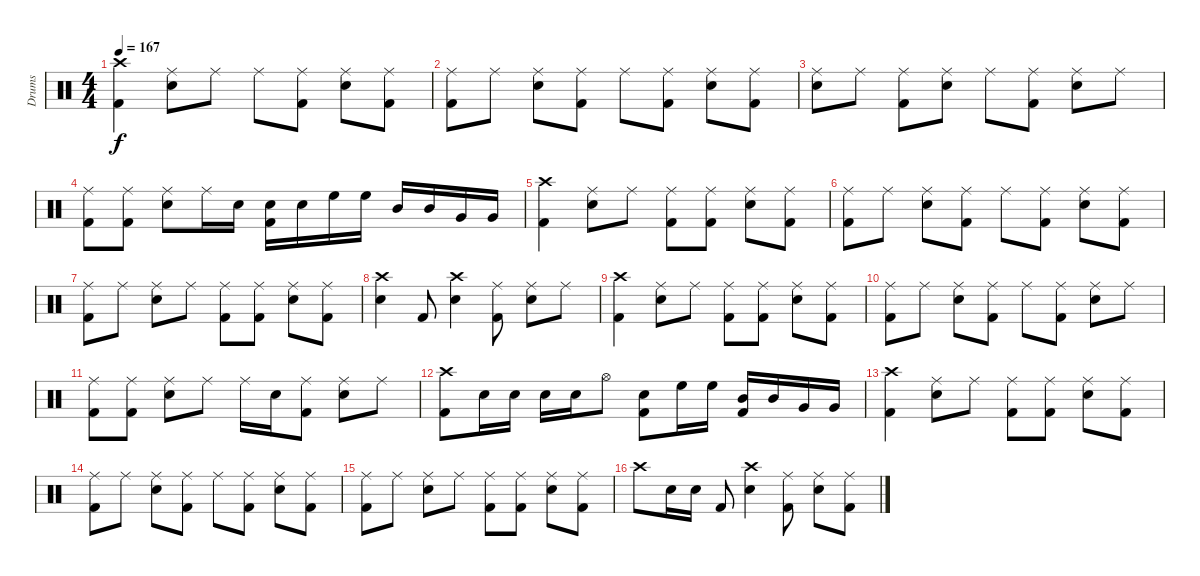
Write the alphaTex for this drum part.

\track ("Drums" "Drums") {instrument percussion}
\staff {score}
\articulation defaults
\ts (4 4)
\tempo 167
\clef neutral
\ks c
("Kick (hit) 2" "Crash high (hit)").4{dy f} ("Ride (middle)" "Snare (hit) 2").8 "Ride (middle)".8 "Ride (middle)".8 ("Ride (middle)" "Kick (hit) 2").8 ("Ride (middle)" "Snare (hit) 2").8 ("Ride (middle)" "Kick (hit) 2").8 |
("Kick (hit) 2" "Ride (middle)").8 "Ride (middle)".8 ("Snare (hit) 2" "Ride (middle)").8 ("Kick (hit) 2" "Ride (middle)").8 "Ride (middle)".8 ("Kick (hit) 2" "Ride (middle)").8 ("Snare (hit) 2" "Ride (middle)").8 ("Kick (hit) 2" "Ride (middle)").8 |
("Ride (middle)" "Snare (hit) 2").8 "Ride (middle)".8 ("Kick (hit) 2" "Ride (middle)").8 ("Snare (hit) 2" "Ride (middle)").8 "Ride (middle)".8 ("Kick (hit) 2" "Ride (middle)").8 ("Snare (hit) 2" "Ride (middle)").8 "Ride (middle)".8 |
("Kick (hit) 2" "Ride (middle)").8 ("Kick (hit) 2" "Ride (middle)").8 ("Snare (hit) 2" "Ride (middle)").8 "Ride (middle)".16 "Snare (hit) 2".16 ("Kick (hit) 2" "Snare (hit) 2").16 "Snare (hit) 2".16 "High Floor Tom (hit)".16 "High Floor Tom (hit)".16 "Mid Tom (hit)".16 "Mid Tom (hit)".16 "Very Low Tom (hit)".16 "Very Low Tom (hit)".16 |
("Kick (hit) 2" "Crash high (hit)").4 ("Ride (middle)" "Snare (hit) 2").8 "Ride (middle)".8 ("Ride (middle)" "Kick (hit) 2").8 ("Ride (middle)" "Kick (hit) 2").8 ("Ride (middle)" "Snare (hit) 2").8 ("Kick (hit) 2" "Ride (middle)").8 |
("Kick (hit) 2" "Ride (middle)").8 "Ride (middle)".8 ("Snare (hit) 2" "Ride (middle)").8 ("Kick (hit) 2" "Ride (middle)").8 "Ride (middle)".8 ("Kick (hit) 2" "Ride (middle)").8 ("Snare (hit) 2" "Ride (middle)").8 ("Kick (hit) 2" "Ride (middle)").8 |
("Kick (hit) 2" "Ride (middle)").8 "Ride (middle)".8 ("Snare (hit) 2" "Ride (middle)").8 "Ride (middle)".8 ("Kick (hit) 2" "Ride (middle)").8 ("Kick (hit) 2" "Ride (middle)").8 ("Snare (hit) 2" "Ride (middle)").8 ("Kick (hit) 2" "Ride (middle)").8 |
("Crash high (hit)" "Snare (hit) 2").4 "Kick (hit) 2".8 ("Crash high (hit)" "Snare (hit) 2").4 ("Kick (hit) 2" "Ride (middle)").8 ("Snare (hit) 2" "Ride (middle)").8 "Ride (middle)".8 |
("Kick (hit) 2" "Crash high (hit)").4 ("Ride (middle)" "Snare (hit) 2").8 "Ride (middle)".8 ("Kick (hit) 2" "Ride (middle)").8 ("Ride (middle)" "Kick (hit) 2").8 ("Ride (middle)" "Snare (hit) 2").8 ("Ride (middle)" "Kick (hit) 2").8 |
("Kick (hit) 2" "Ride (middle)").8 "Ride (middle)".8 ("Snare (hit) 2" "Ride (middle)").8 ("Kick (hit) 2" "Ride (middle)").8 "Ride (middle)".8 ("Kick (hit) 2" "Ride (middle)").8 ("Snare (hit) 2" "Ride (middle)").8 "Ride (middle)".8 |
("Kick (hit) 2" "Ride (middle)").8 ("Kick (hit) 2" "Ride (middle)").8 ("Snare (hit) 2" "Ride (middle)").8 "Ride (middle)".8 "Ride (middle)".16 "Snare (hit) 2".16 ("Ride (middle)" "Kick (hit) 2").8 ("Snare (hit) 2" "Ride (middle)").8 "Ride (middle)".8 |
("Crash high (hit)" "Kick (hit) 2").8 "Snare (hit) 2".16 "Snare (hit) 2".16 "Snare (hit) 2".16 "Snare (hit) 2".16 "Hi-Hat (open)".8 ("Snare (hit) 2" "Kick (hit) 2").8 "High Floor Tom (hit)".16 "High Floor Tom (hit)".16 ("Kick (hit) 2" "Mid Tom (hit)").16 "Mid Tom (hit)".16 "Very Low Tom (hit)".16 "Very Low Tom (hit)".16 |
("Kick (hit) 2" "Crash high (hit)").4 ("Ride (middle)" "Snare (hit) 2").8 "Ride (middle)".8 ("Ride (middle)" "Kick (hit) 2").8 ("Ride (middle)" "Kick (hit) 2").8 ("Ride (middle)" "Snare (hit) 2").8 ("Ride (middle)" "Kick (hit) 2").8 |
("Kick (hit) 2" "Ride (middle)").8 "Ride (middle)".8 ("Snare (hit) 2" "Ride (middle)").8 ("Kick (hit) 2" "Ride (middle)").8 "Ride (middle)".8 ("Kick (hit) 2" "Ride (middle)").8 ("Snare (hit) 2" "Ride (middle)").8 ("Kick (hit) 2" "Ride (middle)").8 |
("Kick (hit) 2" "Ride (middle)").8 "Ride (middle)".8 ("Snare (hit) 2" "Ride (middle)").8 "Ride (middle)".8 ("Ride (middle)" "Kick (hit) 2").8 ("Kick (hit) 2" "Ride (middle)").8 ("Snare (hit) 2" "Ride (middle)").8 ("Kick (hit) 2" "Ride (middle)").8 |
"Crash high (hit)".8 "Snare (hit) 2".16 "Snare (hit) 2".16 "Kick (hit) 2".8 ("Crash high (hit)" "Snare (hit) 2").4 ("Ride (middle)" "Kick (hit) 2").8 ("Ride (middle)" "Snare (hit) 2").8 ("Ride (middle)" "Kick (hit) 2").8
